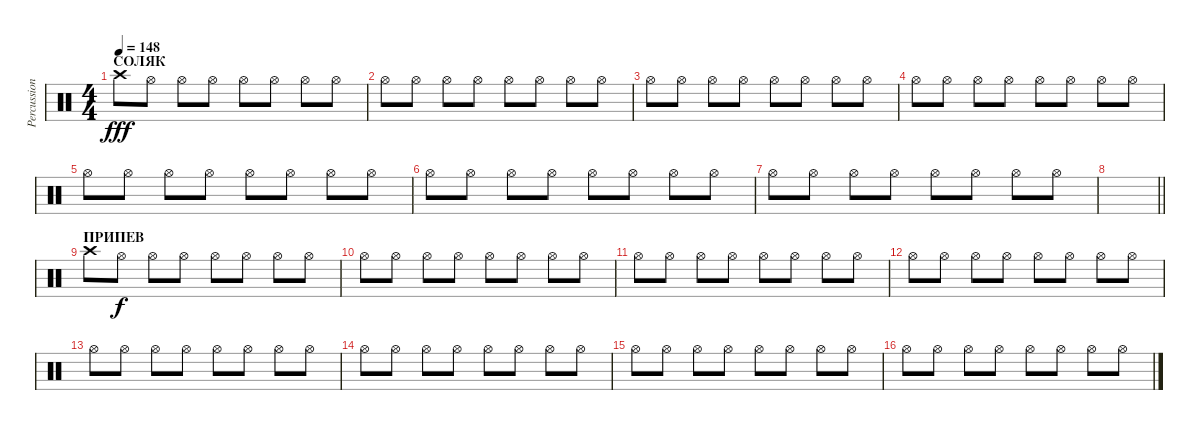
\track ("Percussion" "Percussion") {instrument percussion}
\staff {score}
\articulation defaults
\ts (4 4)
\section ("" "СОЛЯК")
\tempo 148
\clef neutral
\ks c "Crash high (hit)".8{dy fff} "Hi-Hat (open)".8 "Hi-Hat (open)".8 "Hi-Hat (open)".8 "Hi-Hat (open)".8 "Hi-Hat (open)".8 "Hi-Hat (open)".8 "Hi-Hat (open)".8
|
"Hi-Hat (open)".8 "Hi-Hat (open)".8 "Hi-Hat (open)".8 "Hi-Hat (open)".8 "Hi-Hat (open)".8 "Hi-Hat (open)".8 "Hi-Hat (open)".8 "Hi-Hat (open)".8 |
"Hi-Hat (open)".8 "Hi-Hat (open)".8 "Hi-Hat (open)".8 "Hi-Hat (open)".8 "Hi-Hat (open)".8 "Hi-Hat (open)".8 "Hi-Hat (open)".8 "Hi-Hat (open)".8 |
"Hi-Hat (open)".8 "Hi-Hat (open)".8 "Hi-Hat (open)".8 "Hi-Hat (open)".8 "Hi-Hat (open)".8 "Hi-Hat (open)".8 "Hi-Hat (open)".8 "Hi-Hat (open)".8 |
"Hi-Hat (open)".8 "Hi-Hat (open)".8 "Hi-Hat (open)".8 "Hi-Hat (open)".8 "Hi-Hat (open)".8 "Hi-Hat (open)".8 "Hi-Hat (open)".8 "Hi-Hat (open)".8 |
"Hi-Hat (open)".8 "Hi-Hat (open)".8 "Hi-Hat (open)".8 "Hi-Hat (open)".8 "Hi-Hat (open)".8 "Hi-Hat (open)".8 "Hi-Hat (open)".8 "Hi-Hat (open)".8 |
"Hi-Hat (open)".8 "Hi-Hat (open)".8 "Hi-Hat (open)".8 "Hi-Hat (open)".8 "Hi-Hat (open)".8 "Hi-Hat (open)".8 "Hi-Hat (open)".8 "Hi-Hat (open)".8 |
\barLineRight lightlight
|
\section ("" "ПРИПЕВ")
"Crash high (hit)".8 "Hi-Hat (open)".8{dy f} "Hi-Hat (open)".8 "Hi-Hat (open)".8 "Hi-Hat (open)".8 "Hi-Hat (open)".8 "Hi-Hat (open)".8 "Hi-Hat (open)".8 |
"Hi-Hat (open)".8 "Hi-Hat (open)".8 "Hi-Hat (open)".8 "Hi-Hat (open)".8 "Hi-Hat (open)".8 "Hi-Hat (open)".8 "Hi-Hat (open)".8 "Hi-Hat (open)".8 |
"Hi-Hat (open)".8 "Hi-Hat (open)".8 "Hi-Hat (open)".8 "Hi-Hat (open)".8 "Hi-Hat (open)".8 "Hi-Hat (open)".8 "Hi-Hat (open)".8 "Hi-Hat (open)".8 |
"Hi-Hat (open)".8 "Hi-Hat (open)".8 "Hi-Hat (open)".8 "Hi-Hat (open)".8 "Hi-Hat (open)".8 "Hi-Hat (open)".8 "Hi-Hat (open)".8 "Hi-Hat (open)".8 |
"Hi-Hat (open)".8 "Hi-Hat (open)".8 "Hi-Hat (open)".8 "Hi-Hat (open)".8 "Hi-Hat (open)".8 "Hi-Hat (open)".8 "Hi-Hat (open)".8 "Hi-Hat (open)".8 |
"Hi-Hat (open)".8 "Hi-Hat (open)".8 "Hi-Hat (open)".8 "Hi-Hat (open)".8 "Hi-Hat (open)".8 "Hi-Hat (open)".8 "Hi-Hat (open)".8 "Hi-Hat (open)".8 |
"Hi-Hat (open)".8 "Hi-Hat (open)".8 "Hi-Hat (open)".8 "Hi-Hat (open)".8 "Hi-Hat (open)".8 "Hi-Hat (open)".8 "Hi-Hat (open)".8 "Hi-Hat (open)".8 |
"Hi-Hat (open)".8 "Hi-Hat (open)".8 "Hi-Hat (open)".8 "Hi-Hat (open)".8 "Hi-Hat (open)".8 "Hi-Hat (open)".8 "Hi-Hat (open)".8 "Hi-Hat (open)".8
